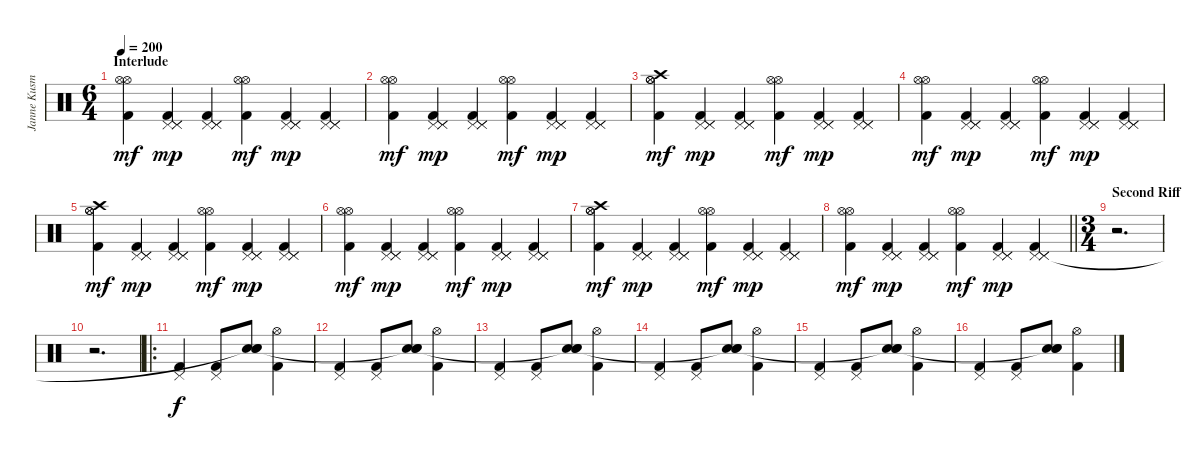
\track ("Janne Kusmin" "Janne Kusm") {instrument percussion}
\staff {score}
\articulation defaults
\ts (6 4)
\section ("" "Interlude")
\tempo 200
\clef neutral
\ks c
("Hi-Hat (open)" "Hi-Hat (open)" "Kick (hit) 2").4{dy mf} ("Pedal Hi-Hat (hit)" "Pedal Hi-Hat (hit)" "Pedal Hi-Hat (hit)" "Kick (hit) 2").4{dy mp} ("Pedal Hi-Hat (hit)" "Pedal Hi-Hat (hit)" "Pedal Hi-Hat (hit)" "Kick (hit) 2").4 ("Hi-Hat (open)" "Hi-Hat (open)" "Kick (hit) 2").4{dy mf} ("Pedal Hi-Hat (hit)" "Pedal Hi-Hat (hit)" "Pedal Hi-Hat (hit)" "Kick (hit) 2").4{dy mp} ("Pedal Hi-Hat (hit)" "Pedal Hi-Hat (hit)" "Pedal Hi-Hat (hit)" "Kick (hit) 2").4 |
("Hi-Hat (open)" "Hi-Hat (open)" "Kick (hit) 2").4{dy mf} ("Pedal Hi-Hat (hit)" "Pedal Hi-Hat (hit)" "Pedal Hi-Hat (hit)" "Kick (hit) 2").4{dy mp} ("Pedal Hi-Hat (hit)" "Pedal Hi-Hat (hit)" "Pedal Hi-Hat (hit)" "Kick (hit) 2").4 ("Hi-Hat (open)" "Hi-Hat (open)" "Kick (hit) 2").4{dy mf} ("Pedal Hi-Hat (hit)" "Pedal Hi-Hat (hit)" "Pedal Hi-Hat (hit)" "Kick (hit) 2").4{dy mp} ("Pedal Hi-Hat (hit)" "Pedal Hi-Hat (hit)" "Pedal Hi-Hat (hit)" "Kick (hit) 2").4 |
("Crash high (hit)" "Hi-Hat (open)" "Hi-Hat (open)" "Kick (hit) 2").4{dy mf} ("Pedal Hi-Hat (hit)" "Pedal Hi-Hat (hit)" "Pedal Hi-Hat (hit)" "Kick (hit) 2").4{dy mp} ("Pedal Hi-Hat (hit)" "Pedal Hi-Hat (hit)" "Pedal Hi-Hat (hit)" "Kick (hit) 2").4 ("Hi-Hat (open)" "Hi-Hat (open)" "Kick (hit) 2").4{dy mf} ("Pedal Hi-Hat (hit)" "Pedal Hi-Hat (hit)" "Pedal Hi-Hat (hit)" "Kick (hit) 2").4{dy mp} ("Pedal Hi-Hat (hit)" "Pedal Hi-Hat (hit)" "Pedal Hi-Hat (hit)" "Kick (hit) 2").4 |
("Hi-Hat (open)" "Hi-Hat (open)" "Kick (hit) 2").4{dy mf} ("Pedal Hi-Hat (hit)" "Pedal Hi-Hat (hit)" "Pedal Hi-Hat (hit)" "Kick (hit) 2").4{dy mp} ("Pedal Hi-Hat (hit)" "Pedal Hi-Hat (hit)" "Pedal Hi-Hat (hit)" "Kick (hit) 2").4 ("Hi-Hat (open)" "Hi-Hat (open)" "Kick (hit) 2").4{dy mf} ("Pedal Hi-Hat (hit)" "Pedal Hi-Hat (hit)" "Pedal Hi-Hat (hit)" "Kick (hit) 2").4{dy mp} ("Pedal Hi-Hat (hit)" "Pedal Hi-Hat (hit)" "Pedal Hi-Hat (hit)" "Kick (hit) 2").4 |
("Crash high (hit)" "Hi-Hat (open)" "Hi-Hat (open)" "Kick (hit) 2").4{dy mf} ("Pedal Hi-Hat (hit)" "Pedal Hi-Hat (hit)" "Pedal Hi-Hat (hit)" "Kick (hit) 2").4{dy mp} ("Pedal Hi-Hat (hit)" "Pedal Hi-Hat (hit)" "Pedal Hi-Hat (hit)" "Kick (hit) 2").4 ("Hi-Hat (open)" "Hi-Hat (open)" "Kick (hit) 2").4{dy mf} ("Pedal Hi-Hat (hit)" "Pedal Hi-Hat (hit)" "Pedal Hi-Hat (hit)" "Kick (hit) 2").4{dy mp} ("Pedal Hi-Hat (hit)" "Pedal Hi-Hat (hit)" "Pedal Hi-Hat (hit)" "Kick (hit) 2").4 |
("Hi-Hat (open)" "Hi-Hat (open)" "Kick (hit) 2").4{dy mf} ("Pedal Hi-Hat (hit)" "Pedal Hi-Hat (hit)" "Pedal Hi-Hat (hit)" "Kick (hit) 2").4{dy mp} ("Pedal Hi-Hat (hit)" "Pedal Hi-Hat (hit)" "Pedal Hi-Hat (hit)" "Kick (hit) 2").4 ("Hi-Hat (open)" "Hi-Hat (open)" "Kick (hit) 2").4{dy mf} ("Pedal Hi-Hat (hit)" "Pedal Hi-Hat (hit)" "Pedal Hi-Hat (hit)" "Kick (hit) 2").4{dy mp} ("Pedal Hi-Hat (hit)" "Pedal Hi-Hat (hit)" "Pedal Hi-Hat (hit)" "Kick (hit) 2").4 |
("Crash high (hit)" "Hi-Hat (open)" "Hi-Hat (open)" "Kick (hit) 2").4{dy mf} ("Pedal Hi-Hat (hit)" "Pedal Hi-Hat (hit)" "Pedal Hi-Hat (hit)" "Kick (hit) 2").4{dy mp} ("Pedal Hi-Hat (hit)" "Pedal Hi-Hat (hit)" "Pedal Hi-Hat (hit)" "Kick (hit) 2").4 ("Hi-Hat (open)" "Hi-Hat (open)" "Kick (hit) 2").4{dy mf} ("Pedal Hi-Hat (hit)" "Pedal Hi-Hat (hit)" "Pedal Hi-Hat (hit)" "Kick (hit) 2").4{dy mp} ("Pedal Hi-Hat (hit)" "Pedal Hi-Hat (hit)" "Pedal Hi-Hat (hit)" "Kick (hit) 2").4 |
\barLineRight lightlight
("Hi-Hat (open)" "Hi-Hat (open)" "Kick (hit) 2").4{dy mf} ("Pedal Hi-Hat (hit)" "Pedal Hi-Hat (hit)" "Pedal Hi-Hat (hit)" "Kick (hit) 2").4{dy mp} ("Pedal Hi-Hat (hit)" "Pedal Hi-Hat (hit)" "Pedal Hi-Hat (hit)" "Kick (hit) 2").4 ("Hi-Hat (open)" "Hi-Hat (open)" "Kick (hit) 2").4{dy mf} ("Pedal Hi-Hat (hit)" "Pedal Hi-Hat (hit)" "Pedal Hi-Hat (hit)" "Kick (hit) 2").4{dy mp} ("Pedal Hi-Hat (hit)" "Pedal Hi-Hat (hit)" "Pedal Hi-Hat (hit)" "Kick (hit) 2").4 |
\ts (3 4)
\section ("" "Second Riff")
r.2{d} |
r.2{d} |
\ro
("Pedal Hi-Hat (hit)" "Kick (hit) 2").4{dy f} ("Pedal Hi-Hat (hit)" "Kick (hit) 2").8 ("Snare (hit) 2" "Snare (hit) 2" "Snare (hit) 2"{t}).8 ("Hi-Hat (open)" "Kick (hit) 2").4 |
("Pedal Hi-Hat (hit)" "Kick (hit) 2").4 ("Pedal Hi-Hat (hit)" "Kick (hit) 2").8 ("Snare (hit) 2" "Snare (hit) 2" "Snare (hit) 2"{t}).8 ("Hi-Hat (open)" "Kick (hit) 2").4 |
("Pedal Hi-Hat (hit)" "Kick (hit) 2").4 ("Pedal Hi-Hat (hit)" "Kick (hit) 2").8 ("Snare (hit) 2" "Snare (hit) 2" "Snare (hit) 2"{t}).8 ("Hi-Hat (open)" "Kick (hit) 2").4 |
("Pedal Hi-Hat (hit)" "Kick (hit) 2").4 ("Pedal Hi-Hat (hit)" "Kick (hit) 2").8 ("Snare (hit) 2" "Snare (hit) 2" "Snare (hit) 2"{t}).8 ("Hi-Hat (open)" "Kick (hit) 2").4 |
("Pedal Hi-Hat (hit)" "Kick (hit) 2").4 ("Pedal Hi-Hat (hit)" "Kick (hit) 2").8 ("Snare (hit) 2" "Snare (hit) 2" "Snare (hit) 2"{t}).8 ("Hi-Hat (open)" "Kick (hit) 2").4 |
("Pedal Hi-Hat (hit)" "Kick (hit) 2").4 ("Pedal Hi-Hat (hit)" "Kick (hit) 2").8 ("Snare (hit) 2" "Snare (hit) 2" "Snare (hit) 2"{t}).8 ("Hi-Hat (open)" "Kick (hit) 2").4
